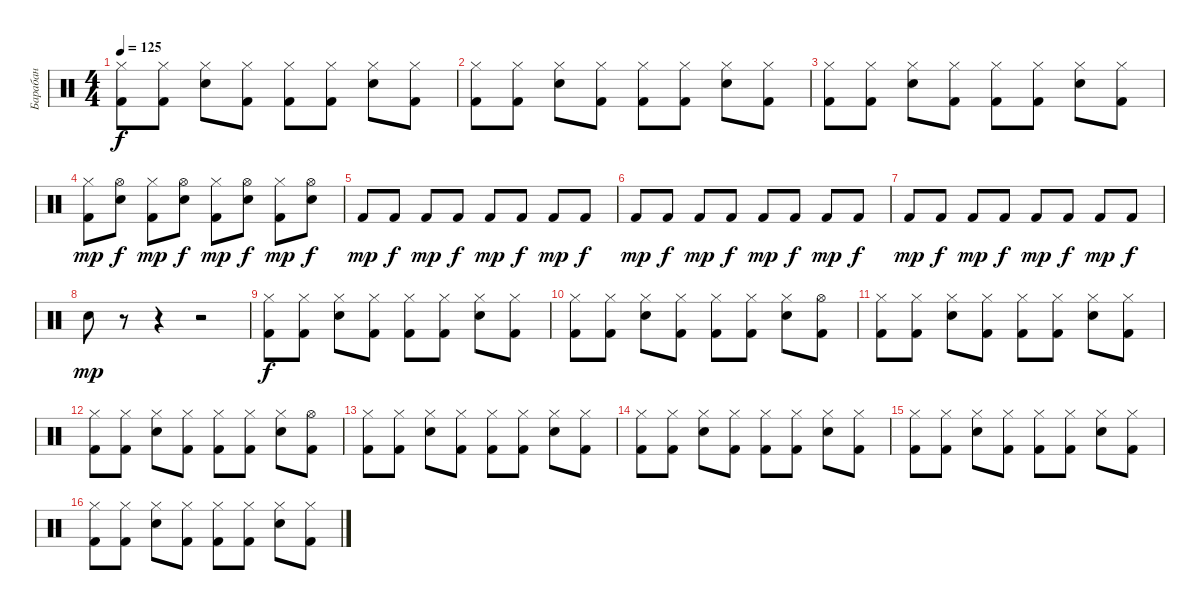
\track ("Барабан" "Барабан") {instrument percussion}
\staff {score}
\articulation defaults
\ts (4 4)
\tempo 125
\clef neutral
\ks c
("Kick (hit) 2" "Hi-Hat (closed)").8{dy f} ("Kick (hit) 2" "Hi-Hat (closed)").8 ("Electric Snare (hit)" "Hi-Hat (closed)").8 ("Kick (hit) 2" "Hi-Hat (closed)").8 ("Kick (hit) 2" "Hi-Hat (closed)").8 ("Kick (hit) 2" "Hi-Hat (closed)").8 ("Electric Snare (hit)" "Hi-Hat (closed)").8 ("Kick (hit) 2" "Hi-Hat (closed)").8 |
("Kick (hit) 2" "Hi-Hat (closed)").8 ("Kick (hit) 2" "Hi-Hat (closed)").8 ("Electric Snare (hit)" "Hi-Hat (closed)").8 ("Kick (hit) 2" "Hi-Hat (closed)").8 ("Kick (hit) 2" "Hi-Hat (closed)").8 ("Kick (hit) 2" "Hi-Hat (closed)").8 ("Electric Snare (hit)" "Hi-Hat (closed)").8 ("Kick (hit) 2" "Hi-Hat (closed)").8 |
("Kick (hit) 2" "Hi-Hat (closed)").8 ("Kick (hit) 2" "Hi-Hat (closed)").8 ("Electric Snare (hit)" "Hi-Hat (closed)").8 ("Kick (hit) 2" "Hi-Hat (closed)").8 ("Kick (hit) 2" "Hi-Hat (closed)").8 ("Kick (hit) 2" "Hi-Hat (closed)").8 ("Electric Snare (hit)" "Hi-Hat (closed)").8 ("Kick (hit) 2" "Hi-Hat (closed)").8 |
("Kick (hit) 2" "Hi-Hat (closed)").8{dy mp} ("Electric Snare (hit)" "Hi-Hat (open)").8{dy f} ("Kick (hit) 2" "Hi-Hat (closed)").8{dy mp} ("Electric Snare (hit)" "Hi-Hat (open)").8{dy f} ("Kick (hit) 2" "Hi-Hat (closed)").8{dy mp} ("Electric Snare (hit)" "Hi-Hat (open)").8{dy f} ("Kick (hit) 2" "Hi-Hat (closed)").8{dy mp} ("Electric Snare (hit)" "Hi-Hat (open)").8{dy f} |
"Kick (hit) 2".8{dy mp} "Kick (hit) 2".8{dy f} "Kick (hit) 2".8{dy mp} "Kick (hit) 2".8{dy f} "Kick (hit) 2".8{dy mp} "Kick (hit) 2".8{dy f} "Kick (hit) 2".8{dy mp} "Kick (hit) 2".8{dy f} |
"Kick (hit) 2".8{dy mp} "Kick (hit) 2".8{dy f} "Kick (hit) 2".8{dy mp} "Kick (hit) 2".8{dy f} "Kick (hit) 2".8{dy mp} "Kick (hit) 2".8{dy f} "Kick (hit) 2".8{dy mp} "Kick (hit) 2".8{dy f} |
"Kick (hit) 2".8{dy mp} "Kick (hit) 2".8{dy f} "Kick (hit) 2".8{dy mp} "Kick (hit) 2".8{dy f} "Kick (hit) 2".8{dy mp} "Kick (hit) 2".8{dy f} "Kick (hit) 2".8{dy mp} "Kick (hit) 2".8{dy f} |
"Electric Snare (hit)".8{dy mp} r.8 r.4 r.2 |
("Kick (hit) 2" "Hi-Hat (closed)").8{dy f} ("Kick (hit) 2" "Hi-Hat (closed)").8 ("Electric Snare (hit)" "Hi-Hat (closed)").8 ("Kick (hit) 2" "Hi-Hat (closed)").8 ("Kick (hit) 2" "Hi-Hat (closed)").8 ("Kick (hit) 2" "Hi-Hat (closed)").8 ("Electric Snare (hit)" "Hi-Hat (closed)").8 ("Kick (hit) 2" "Hi-Hat (closed)").8 |
("Kick (hit) 2" "Hi-Hat (closed)").8 ("Kick (hit) 2" "Hi-Hat (closed)").8 ("Electric Snare (hit)" "Hi-Hat (closed)").8 ("Kick (hit) 2" "Hi-Hat (closed)").8 ("Kick (hit) 2" "Hi-Hat (closed)").8 ("Kick (hit) 2" "Hi-Hat (closed)").8 ("Electric Snare (hit)" "Hi-Hat (closed)").8 ("Kick (hit) 2" "Hi-Hat (open)").8 |
("Kick (hit) 2" "Hi-Hat (closed)").8 ("Kick (hit) 2" "Hi-Hat (closed)").8 ("Electric Snare (hit)" "Hi-Hat (closed)").8 ("Kick (hit) 2" "Hi-Hat (closed)").8 ("Kick (hit) 2" "Hi-Hat (closed)").8 ("Kick (hit) 2" "Hi-Hat (closed)").8 ("Electric Snare (hit)" "Hi-Hat (closed)").8 ("Kick (hit) 2" "Hi-Hat (closed)").8 |
("Kick (hit) 2" "Hi-Hat (closed)").8 ("Kick (hit) 2" "Hi-Hat (closed)").8 ("Electric Snare (hit)" "Hi-Hat (closed)").8 ("Kick (hit) 2" "Hi-Hat (closed)").8 ("Kick (hit) 2" "Hi-Hat (closed)").8 ("Kick (hit) 2" "Hi-Hat (closed)").8 ("Electric Snare (hit)" "Hi-Hat (closed)").8 ("Kick (hit) 2" "Hi-Hat (open)").8 |
("Kick (hit) 2" "Hi-Hat (closed)").8 ("Kick (hit) 2" "Hi-Hat (closed)").8 ("Electric Snare (hit)" "Hi-Hat (closed)").8 ("Kick (hit) 2" "Hi-Hat (closed)").8 ("Kick (hit) 2" "Hi-Hat (closed)").8 ("Kick (hit) 2" "Hi-Hat (closed)").8 ("Electric Snare (hit)" "Hi-Hat (closed)").8 ("Kick (hit) 2" "Hi-Hat (closed)").8 |
("Kick (hit) 2" "Hi-Hat (closed)").8 ("Kick (hit) 2" "Hi-Hat (closed)").8 ("Electric Snare (hit)" "Hi-Hat (closed)").8 ("Kick (hit) 2" "Hi-Hat (closed)").8 ("Kick (hit) 2" "Hi-Hat (closed)").8 ("Kick (hit) 2" "Hi-Hat (closed)").8 ("Electric Snare (hit)" "Hi-Hat (closed)").8 ("Kick (hit) 2" "Hi-Hat (closed)").8 |
("Kick (hit) 2" "Hi-Hat (closed)").8 ("Kick (hit) 2" "Hi-Hat (closed)").8 ("Electric Snare (hit)" "Hi-Hat (closed)").8 ("Kick (hit) 2" "Hi-Hat (closed)").8 ("Kick (hit) 2" "Hi-Hat (closed)").8 ("Kick (hit) 2" "Hi-Hat (closed)").8 ("Electric Snare (hit)" "Hi-Hat (closed)").8 ("Kick (hit) 2" "Hi-Hat (closed)").8 |
("Kick (hit) 2" "Hi-Hat (closed)").8 ("Kick (hit) 2" "Hi-Hat (closed)").8 ("Electric Snare (hit)" "Hi-Hat (closed)").8 ("Kick (hit) 2" "Hi-Hat (closed)").8 ("Kick (hit) 2" "Hi-Hat (closed)").8 ("Kick (hit) 2" "Hi-Hat (closed)").8 ("Electric Snare (hit)" "Hi-Hat (closed)").8 ("Kick (hit) 2" "Hi-Hat (closed)").8
